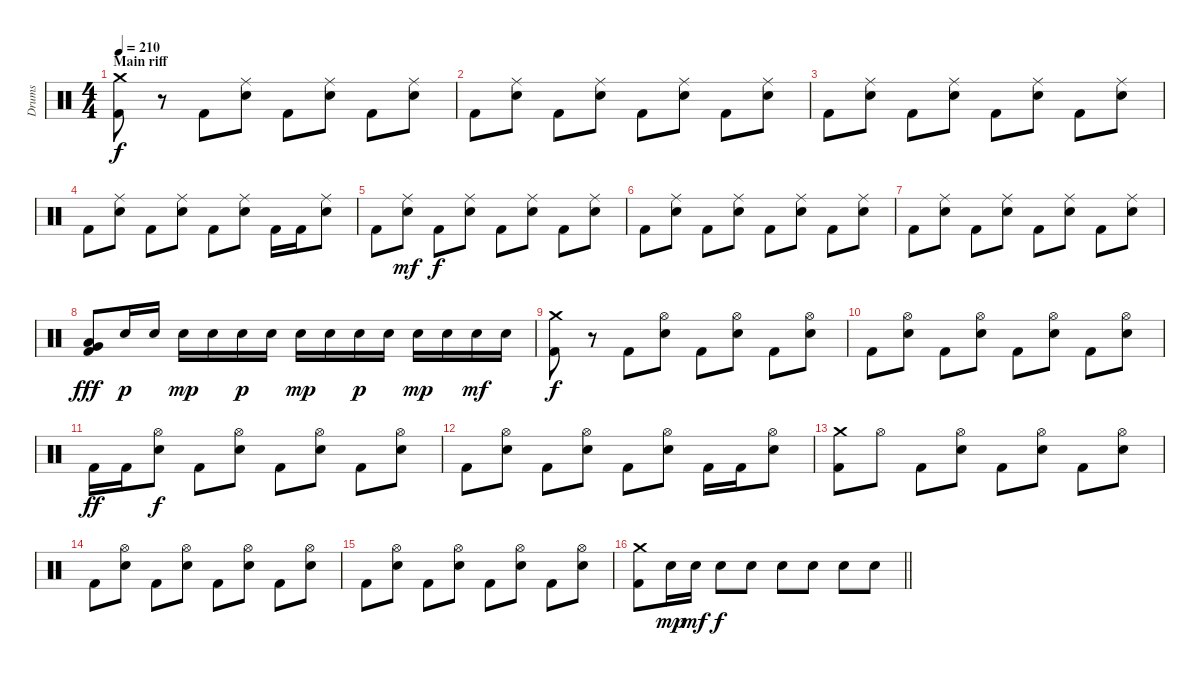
\track ("Drums" "Drums") {instrument percussion}
\staff {score}
\articulation defaults
\ts (4 4)
\section ("" "Main riff")
\tempo 210
\clef neutral
\ks c
("Crash medium (hit)" "Kick (hit) 2").8{dy f} r.8 "Kick (hit) 2".8 ("Ride (middle)" "Electric Snare (hit)").8 "Kick (hit) 2".8 ("Ride (middle)" "Electric Snare (hit)").8 "Kick (hit) 2".8 ("Ride (middle)" "Electric Snare (hit)").8 |
"Kick (hit) 2".8 ("Ride (middle)" "Electric Snare (hit)").8 "Kick (hit) 2".8 ("Ride (middle)" "Electric Snare (hit)").8 "Kick (hit) 2".8 ("Ride (middle)" "Electric Snare (hit)").8 "Kick (hit) 2".8 ("Ride (middle)" "Electric Snare (hit)").8 |
"Kick (hit) 2".8 ("Ride (middle)" "Electric Snare (hit)").8 "Kick (hit) 2".8 ("Ride (middle)" "Electric Snare (hit)").8 "Kick (hit) 2".8 ("Ride (middle)" "Electric Snare (hit)").8 "Kick (hit) 2".8 ("Ride (middle)" "Electric Snare (hit)").8 |
"Kick (hit) 2".8 ("Ride (middle)" "Electric Snare (hit)").8 "Kick (hit) 2".8 ("Ride (middle)" "Electric Snare (hit)").8 "Kick (hit) 2".8 ("Ride (middle)" "Electric Snare (hit)").8 "Kick (hit) 2".16 "Kick (hit) 2".16 ("Ride (middle)" "Electric Snare (hit)").8 |
"Kick (hit) 2".8 ("Ride (middle)" "Electric Snare (hit)").8{dy mf} "Kick (hit) 2".8{dy f} ("Ride (middle)" "Electric Snare (hit)").8 "Kick (hit) 2".8 ("Ride (middle)" "Electric Snare (hit)").8 "Kick (hit) 2".8 ("Ride (middle)" "Electric Snare (hit)").8 |
"Kick (hit) 2".8 ("Ride (middle)" "Electric Snare (hit)").8 "Kick (hit) 2".8 ("Ride (middle)" "Electric Snare (hit)").8 "Kick (hit) 2".8 ("Ride (middle)" "Electric Snare (hit)").8 "Kick (hit) 2".8 ("Ride (middle)" "Electric Snare (hit)").8 |
"Kick (hit) 2".8 ("Ride (middle)" "Electric Snare (hit)").8 "Kick (hit) 2".8 ("Ride (middle)" "Electric Snare (hit)").8 "Kick (hit) 2".8 ("Ride (middle)" "Electric Snare (hit)").8 "Kick (hit) 2".8 ("Ride (middle)" "Electric Snare (hit)").8 |
("Very Low Tom (hit)" "Low Tom (hit)" "Kick (hit) 2").8{dy fff} "Electric Snare (hit)".16{dy p} "Electric Snare (hit)".16 "Electric Snare (hit)".16{dy mp} "Electric Snare (hit)".16 "Electric Snare (hit)".16{dy p} "Electric Snare (hit)".16 "Electric Snare (hit)".16{dy mp} "Electric Snare (hit)".16 "Electric Snare (hit)".16{dy p} "Electric Snare (hit)".16 "Electric Snare (hit)".16{dy mp} "Electric Snare (hit)".16 "Electric Snare (hit)".16{dy mf} "Electric Snare (hit)".16 |
("Crash medium (hit)" "Kick (hit) 2").8{dy f} r.8 "Kick (hit) 2".8 ("Hi-Hat (open)" "Electric Snare (hit)").8 "Kick (hit) 2".8 ("Hi-Hat (open)" "Electric Snare (hit)").8 "Kick (hit) 2".8 ("Hi-Hat (open)" "Electric Snare (hit)").8 |
"Kick (hit) 2".8 ("Hi-Hat (open)" "Electric Snare (hit)").8 "Kick (hit) 2".8 ("Hi-Hat (open)" "Electric Snare (hit)").8 "Kick (hit) 2".8 ("Hi-Hat (open)" "Electric Snare (hit)").8 "Kick (hit) 2".8 ("Hi-Hat (open)" "Electric Snare (hit)").8 |
"Kick (hit) 2".16{dy ff} "Kick (hit) 2".16 ("Hi-Hat (open)" "Electric Snare (hit)").8{dy f} "Kick (hit) 2".8 ("Hi-Hat (open)" "Electric Snare (hit)").8 "Kick (hit) 2".8 ("Hi-Hat (open)" "Electric Snare (hit)").8 "Kick (hit) 2".8 ("Hi-Hat (open)" "Electric Snare (hit)").8 |
"Kick (hit) 2".8 ("Hi-Hat (open)" "Electric Snare (hit)").8 "Kick (hit) 2".8 ("Hi-Hat (open)" "Electric Snare (hit)").8 "Kick (hit) 2".8 ("Hi-Hat (open)" "Electric Snare (hit)").8 "Kick (hit) 2".16 "Kick (hit) 2".16 ("Hi-Hat (open)" "Electric Snare (hit)").8 |
("Crash medium (hit)" "Kick (hit) 2").8 "Hi-Hat (open)".8 "Kick (hit) 2".8 ("Hi-Hat (open)" "Electric Snare (hit)").8 "Kick (hit) 2".8 ("Hi-Hat (open)" "Electric Snare (hit)").8 "Kick (hit) 2".8 ("Hi-Hat (open)" "Electric Snare (hit)").8 |
"Kick (hit) 2".8 ("Hi-Hat (open)" "Electric Snare (hit)").8 "Kick (hit) 2".8 ("Hi-Hat (open)" "Electric Snare (hit)").8 "Kick (hit) 2".8 ("Hi-Hat (open)" "Electric Snare (hit)").8 "Kick (hit) 2".8 ("Hi-Hat (open)" "Electric Snare (hit)").8 |
"Kick (hit) 2".8 ("Hi-Hat (open)" "Electric Snare (hit)").8 "Kick (hit) 2".8 ("Hi-Hat (open)" "Electric Snare (hit)").8 "Kick (hit) 2".8 ("Hi-Hat (open)" "Electric Snare (hit)").8 "Kick (hit) 2".8 ("Hi-Hat (open)" "Electric Snare (hit)").8 |
\barLineRight lightlight
("Crash medium (hit)" "Kick (hit) 2").8 "Electric Snare (hit)".16{dy mp} "Electric Snare (hit)".16{dy mf} "Electric Snare (hit)".8{dy f} "Electric Snare (hit)".8 "Electric Snare (hit)".8 "Electric Snare (hit)".8 "Electric Snare (hit)".8 "Electric Snare (hit)".8
